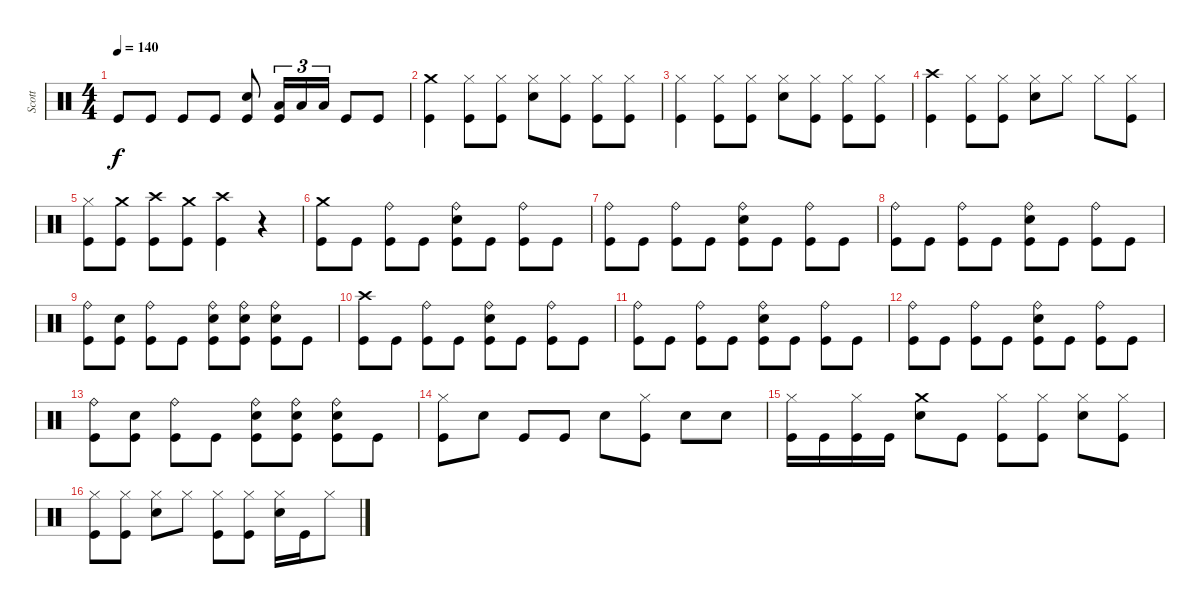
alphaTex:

\track ("Scott" "Scott") {instrument percussion}
\staff {score}
\articulation defaults
\ts (4 4)
\tempo 140
\clef neutral
\ks c "Kick (hit)".8{dy f} "Kick (hit)".8 "Kick (hit)".8 "Kick (hit)".8
("Kick (hit)" "Snare (hit) 2").8 ("Kick (hit)" "Low Tom (hit)").16{tu (3 2)} "Low Tom (hit)".16{tu (3 2)} "Low Tom (hit)".16{tu (3 2)} "Kick (hit)".8 "Kick (hit)".8 |
("Kick (hit)" "Crash medium (hit)").4 ("Kick (hit)" "Hi-Hat (closed)").8 ("Kick (hit)" "Hi-Hat (closed)").8 ("Snare (hit) 2" "Hi-Hat (closed)").8 ("Kick (hit)" "Hi-Hat (closed)").8 ("Kick (hit)" "Hi-Hat (closed)").8 ("Kick (hit)" "Hi-Hat (closed)").8 |
("Kick (hit)" "Hi-Hat (closed)").4 ("Kick (hit)" "Hi-Hat (closed)").8 ("Kick (hit)" "Hi-Hat (closed)").8 ("Snare (hit) 2" "Hi-Hat (closed)").8 ("Kick (hit)" "Hi-Hat (closed)").8 ("Kick (hit)" "Hi-Hat (closed)").8 ("Kick (hit)" "Hi-Hat (closed)").8 |
("Kick (hit)" "Crash high (hit)").4 ("Kick (hit)" "Hi-Hat (closed)").8 ("Kick (hit)" "Hi-Hat (closed)").8 ("Snare (hit) 2" "Hi-Hat (closed)").8 "Hi-Hat (closed)".8 "Hi-Hat (closed)".8 ("Kick (hit)" "Hi-Hat (closed)").8 |
("Kick (hit)" "Hi-Hat (closed)").8 ("Kick (hit)" "Crash medium (hit)").8 ("Kick (hit)" "Crash high (hit)").8 ("Kick (hit)" "Crash medium (hit)").8 ("Kick (hit)" "Crash high (hit)").4 r.4 |
("Kick (hit)" "Crash medium (hit)").8 "Kick (hit)".8 ("Kick (hit)" "Ride (bell)").8 "Kick (hit)".8 ("Kick (hit)" "Snare (hit) 2" "Ride (bell)").8 "Kick (hit)".8 ("Kick (hit)" "Ride (bell)").8 "Kick (hit)".8 |
("Kick (hit)" "Ride (bell)").8 "Kick (hit)".8 ("Kick (hit)" "Ride (bell)").8 "Kick (hit)".8 ("Kick (hit)" "Snare (hit) 2" "Ride (bell)").8 "Kick (hit)".8 ("Kick (hit)" "Ride (bell)").8 "Kick (hit)".8 |
("Kick (hit)" "Ride (bell)").8 "Kick (hit)".8 ("Kick (hit)" "Ride (bell)").8 "Kick (hit)".8 ("Kick (hit)" "Snare (hit) 2" "Ride (bell)").8 "Kick (hit)".8 ("Kick (hit)" "Ride (bell)").8 "Kick (hit)".8 |
("Kick (hit)" "Ride (bell)").8 ("Kick (hit)" "Snare (hit) 2").8 ("Kick (hit)" "Ride (bell)").8 "Kick (hit)".8 ("Kick (hit)" "Snare (hit) 2" "Ride (bell)").8 ("Kick (hit)" "Snare (hit) 2" "Ride (bell)").8 ("Kick (hit)" "Snare (hit) 2" "Ride (bell)").8 "Kick (hit)".8 |
("Kick (hit)" "Crash high (hit)").8 "Kick (hit)".8 ("Kick (hit)" "Ride (bell)").8 "Kick (hit)".8 ("Kick (hit)" "Snare (hit) 2" "Ride (bell)").8 "Kick (hit)".8 ("Kick (hit)" "Ride (bell)").8 "Kick (hit)".8 |
("Kick (hit)" "Ride (bell)").8 "Kick (hit)".8 ("Kick (hit)" "Ride (bell)").8 "Kick (hit)".8 ("Kick (hit)" "Snare (hit) 2" "Ride (bell)").8 "Kick (hit)".8 ("Kick (hit)" "Ride (bell)").8 "Kick (hit)".8 |
("Kick (hit)" "Ride (bell)").8 "Kick (hit)".8 ("Kick (hit)" "Ride (bell)").8 "Kick (hit)".8 ("Kick (hit)" "Snare (hit) 2" "Ride (bell)").8 "Kick (hit)".8 ("Kick (hit)" "Ride (bell)").8 "Kick (hit)".8 |
("Kick (hit)" "Ride (bell)").8 ("Kick (hit)" "Snare (hit) 2").8 ("Kick (hit)" "Ride (bell)").8 "Kick (hit)".8 ("Kick (hit)" "Snare (hit) 2" "Ride (bell)").8 ("Kick (hit)" "Snare (hit) 2" "Ride (bell)").8 ("Kick (hit)" "Snare (hit) 2" "Ride (bell)").8 "Kick (hit)".8 |
("Kick (hit)" "Hi-Hat (closed)").8 "Snare (hit) 2".8 "Kick (hit)".8 "Kick (hit)".8 "Snare (hit) 2".8 ("Kick (hit)" "Hi-Hat (closed)").8 "Snare (hit) 2".8 "Snare (hit) 2".8 |
("Kick (hit)" "Hi-Hat (closed)").16 "Kick (hit)".16 ("Kick (hit)" "Hi-Hat (closed)").16 "Kick (hit)".16 ("Snare (hit) 2" "Crash medium (hit)").8 "Kick (hit)".8 ("Kick (hit)" "Hi-Hat (closed)").8 ("Kick (hit)" "Hi-Hat (closed)").8 ("Snare (hit) 2" "Hi-Hat (closed)").8 ("Kick (hit)" "Hi-Hat (closed)").8 |
("Kick (hit)" "Hi-Hat (closed)").8 ("Kick (hit)" "Hi-Hat (closed)").8 ("Snare (hit) 2" "Hi-Hat (closed)").8 "Hi-Hat (closed)".8 ("Kick (hit)" "Hi-Hat (closed)").8 ("Kick (hit)" "Hi-Hat (closed)").8 ("Snare (hit) 2" "Hi-Hat (closed)").16 "Kick (hit)".16 "Hi-Hat (closed)".8
